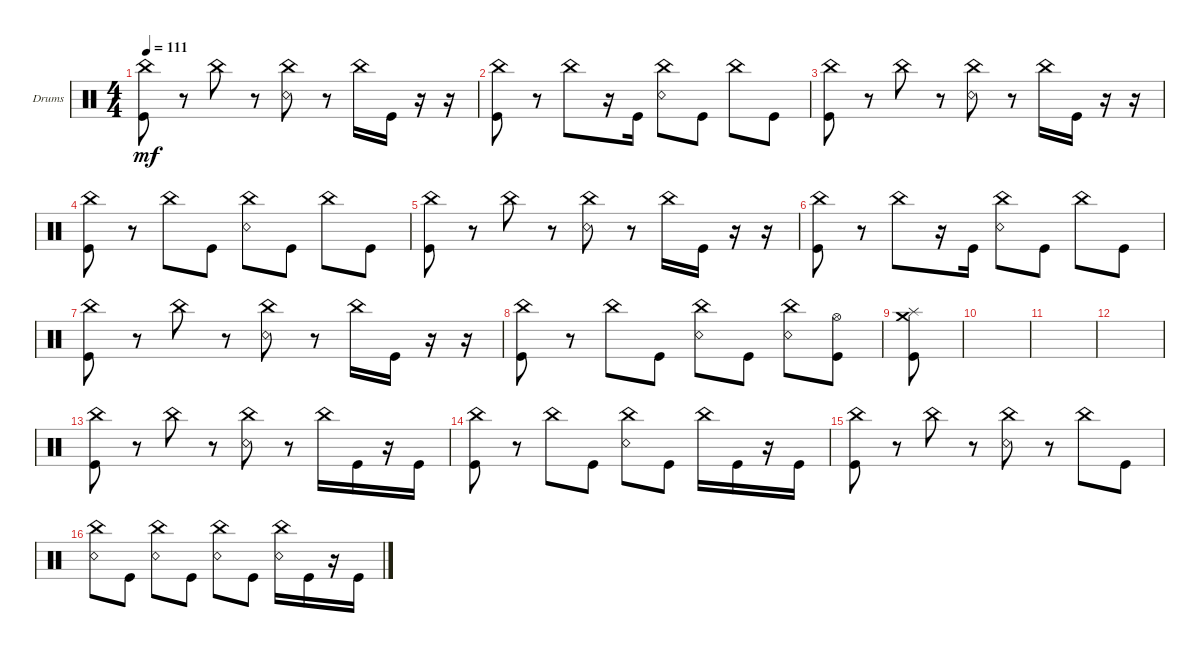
\defaultSystemsLayout 4
\bracketExtendMode groupsimilarinstruments
\firstSystemTrackNameOrientation horizontal
\otherSystemsTrackNameOrientation horizontal
\track ("Drumkit" "Drums") {instrument percussion}
\staff {score}
\articulation defaults
\ts (4 4)
\tempo 111
\clef neutral
\ks c
("China (hit)" "Kick (hit)").8{dy mf} r.8 "China (hit)".8 r.8 ("Snare (rim shot)" "China (hit)").8 r.8 "China (hit)".16 "Kick (hit)".16 r.16 r.16 |
("China (hit)" "Kick (hit)").8 r.8 "China (hit)".8 r.16 "Kick (hit)".16 ("China (hit)" "Snare (rim shot)").8 "Kick (hit)".8 "China (hit)".8 "Kick (hit)".8 |
("China (hit)" "Kick (hit)").8 r.8 "China (hit)".8 r.8 ("China (hit)" "Snare (rim shot)").8 r.8 "China (hit)".16 "Kick (hit)".16 r.16 r.16 |
("China (hit)" "Kick (hit)").8 r.8 "China (hit)".8 "Kick (hit)".8 ("China (hit)" "Snare (rim shot)").8 "Kick (hit)".8 "China (hit)".8 "Kick (hit)".8 |
("China (hit)" "Kick (hit)").8 r.8 "China (hit)".8 r.8 ("Snare (rim shot)" "China (hit)").8 r.8 "China (hit)".16 "Kick (hit)".16 r.16 r.16 |
("China (hit)" "Kick (hit)").8 r.8 "China (hit)".8 r.16 "Kick (hit)".16 ("China (hit)" "Snare (rim shot)").8 "Kick (hit)".8 "China (hit)".8 "Kick (hit)".8 |
("China (hit)" "Kick (hit)").8 r.8 "China (hit)".8 r.8 ("China (hit)" "Snare (rim shot)").8 r.8 "China (hit)".16 "Kick (hit)".16 r.16 r.16 |
("China (hit)" "Kick (hit)").8 r.8 "China (hit)".8 "Kick (hit)".8 ("China (hit)" "Snare (rim shot)").8 "Kick (hit)".8 ("China (hit)" "Snare (rim shot)").8 ("Kick (hit)" "Hi-Hat (open)").8 |
("Splash (hit)" "Kick (hit)" "Crash medium (hit)").8 |
|
|
|
("China (hit)" "Kick (hit)").8 r.8 "China (hit)".8 r.8 ("China (hit)" "Snare (rim shot)").8 r.8 "China (hit)".16 "Kick (hit)".16 r.16 "Kick (hit)".16 |
("China (hit)" "Kick (hit)").8 r.8 "China (hit)".8 "Kick (hit)".8 ("China (hit)" "Snare (rim shot)").8 "Kick (hit)".8 "China (hit)".16 "Kick (hit)".16 r.16 "Kick (hit)".16 |
("China (hit)" "Kick (hit)").8 r.8 "China (hit)".8 r.8 ("China (hit)" "Snare (rim shot)").8 r.8 "China (hit)".8 "Kick (hit)".8 |
("China (hit)" "Snare (rim shot)").8 "Kick (hit)".8 ("China (hit)" "Snare (rim shot)").8 "Kick (hit)".8 ("China (hit)" "Snare (rim shot)").8 "Kick (hit)".8 ("China (hit)" "Snare (rim shot)").16 "Kick (hit)".16 r.16 "Kick (hit)".16
